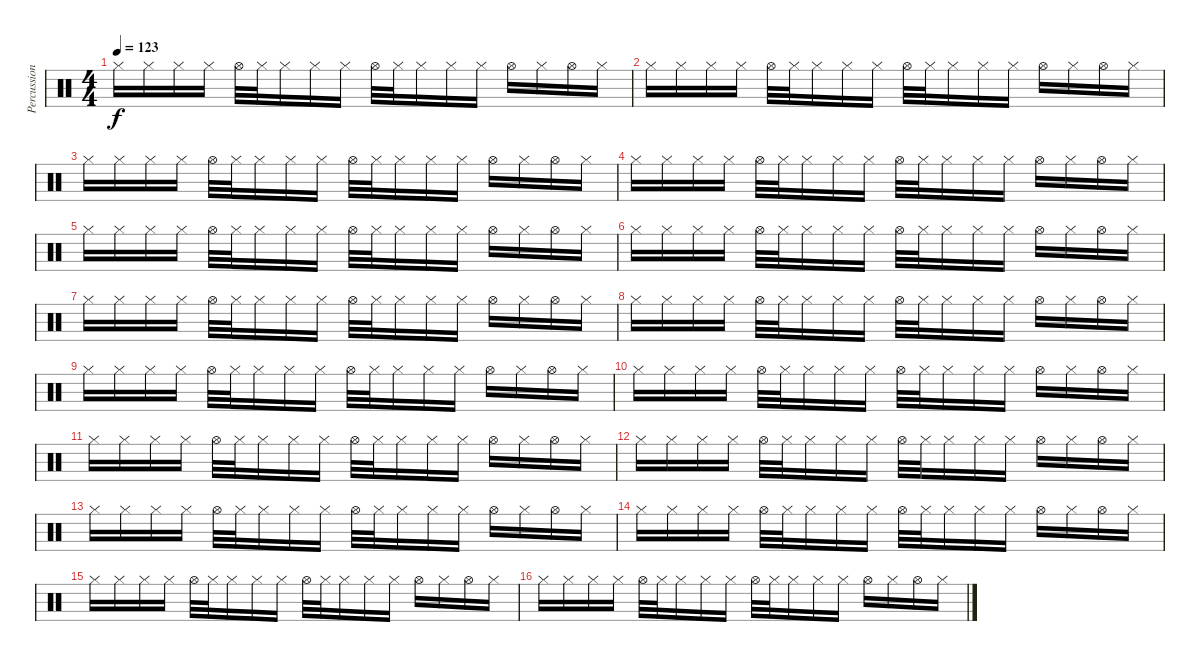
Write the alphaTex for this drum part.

\track ("Percussion" "Percussion") {instrument percussion}
\staff {score}
\articulation defaults
\ts (4 4)
\tempo 123
\clef neutral
\ks c "Hi-Hat (closed)".16{dy f} "Hi-Hat (closed)".16 "Hi-Hat (closed)".16 "Hi-Hat (closed)".16 "Hi-Hat (open)".32 "Hi-Hat (closed)".32 "Hi-Hat (closed)".16 "Hi-Hat (closed)".16 "Hi-Hat (closed)".16 "Hi-Hat (open)".32 "Hi-Hat (closed)".32 "Hi-Hat (closed)".16 "Hi-Hat (closed)".16 "Hi-Hat (closed)".16 "Hi-Hat (open)".16 "Hi-Hat (closed)".16 "Hi-Hat (open)".16 "Hi-Hat (closed)".16
|
"Hi-Hat (closed)".16 "Hi-Hat (closed)".16 "Hi-Hat (closed)".16 "Hi-Hat (closed)".16 "Hi-Hat (open)".32 "Hi-Hat (closed)".32 "Hi-Hat (closed)".16 "Hi-Hat (closed)".16 "Hi-Hat (closed)".16 "Hi-Hat (open)".32 "Hi-Hat (closed)".32 "Hi-Hat (closed)".16 "Hi-Hat (closed)".16 "Hi-Hat (closed)".16 "Hi-Hat (open)".16 "Hi-Hat (closed)".16 "Hi-Hat (open)".16 "Hi-Hat (closed)".16 |
"Hi-Hat (closed)".16 "Hi-Hat (closed)".16 "Hi-Hat (closed)".16 "Hi-Hat (closed)".16 "Hi-Hat (open)".32 "Hi-Hat (closed)".32 "Hi-Hat (closed)".16 "Hi-Hat (closed)".16 "Hi-Hat (closed)".16 "Hi-Hat (open)".32 "Hi-Hat (closed)".32 "Hi-Hat (closed)".16 "Hi-Hat (closed)".16 "Hi-Hat (closed)".16 "Hi-Hat (open)".16 "Hi-Hat (closed)".16 "Hi-Hat (open)".16 "Hi-Hat (closed)".16 |
"Hi-Hat (closed)".16 "Hi-Hat (closed)".16 "Hi-Hat (closed)".16 "Hi-Hat (closed)".16 "Hi-Hat (open)".32 "Hi-Hat (closed)".32 "Hi-Hat (closed)".16 "Hi-Hat (closed)".16 "Hi-Hat (closed)".16 "Hi-Hat (open)".32 "Hi-Hat (closed)".32 "Hi-Hat (closed)".16 "Hi-Hat (closed)".16 "Hi-Hat (closed)".16 "Hi-Hat (open)".16 "Hi-Hat (closed)".16 "Hi-Hat (open)".16 "Hi-Hat (closed)".16 |
"Hi-Hat (closed)".16 "Hi-Hat (closed)".16 "Hi-Hat (closed)".16 "Hi-Hat (closed)".16 "Hi-Hat (open)".32 "Hi-Hat (closed)".32 "Hi-Hat (closed)".16 "Hi-Hat (closed)".16 "Hi-Hat (closed)".16 "Hi-Hat (open)".32 "Hi-Hat (closed)".32 "Hi-Hat (closed)".16 "Hi-Hat (closed)".16 "Hi-Hat (closed)".16 "Hi-Hat (open)".16 "Hi-Hat (closed)".16 "Hi-Hat (open)".16 "Hi-Hat (closed)".16 |
"Hi-Hat (closed)".16 "Hi-Hat (closed)".16 "Hi-Hat (closed)".16 "Hi-Hat (closed)".16 "Hi-Hat (open)".32 "Hi-Hat (closed)".32 "Hi-Hat (closed)".16 "Hi-Hat (closed)".16 "Hi-Hat (closed)".16 "Hi-Hat (open)".32 "Hi-Hat (closed)".32 "Hi-Hat (closed)".16 "Hi-Hat (closed)".16 "Hi-Hat (closed)".16 "Hi-Hat (open)".16 "Hi-Hat (closed)".16 "Hi-Hat (open)".16 "Hi-Hat (closed)".16 |
"Hi-Hat (closed)".16 "Hi-Hat (closed)".16 "Hi-Hat (closed)".16 "Hi-Hat (closed)".16 "Hi-Hat (open)".32 "Hi-Hat (closed)".32 "Hi-Hat (closed)".16 "Hi-Hat (closed)".16 "Hi-Hat (closed)".16 "Hi-Hat (open)".32 "Hi-Hat (closed)".32 "Hi-Hat (closed)".16 "Hi-Hat (closed)".16 "Hi-Hat (closed)".16 "Hi-Hat (open)".16 "Hi-Hat (closed)".16 "Hi-Hat (open)".16 "Hi-Hat (closed)".16 |
"Hi-Hat (closed)".16 "Hi-Hat (closed)".16 "Hi-Hat (closed)".16 "Hi-Hat (closed)".16 "Hi-Hat (open)".32 "Hi-Hat (closed)".32 "Hi-Hat (closed)".16 "Hi-Hat (closed)".16 "Hi-Hat (closed)".16 "Hi-Hat (open)".32 "Hi-Hat (closed)".32 "Hi-Hat (closed)".16 "Hi-Hat (closed)".16 "Hi-Hat (closed)".16 "Hi-Hat (open)".16 "Hi-Hat (closed)".16 "Hi-Hat (open)".16 "Hi-Hat (closed)".16 |
"Hi-Hat (closed)".16 "Hi-Hat (closed)".16 "Hi-Hat (closed)".16 "Hi-Hat (closed)".16 "Hi-Hat (open)".32 "Hi-Hat (closed)".32 "Hi-Hat (closed)".16 "Hi-Hat (closed)".16 "Hi-Hat (closed)".16 "Hi-Hat (open)".32 "Hi-Hat (closed)".32 "Hi-Hat (closed)".16 "Hi-Hat (closed)".16 "Hi-Hat (closed)".16 "Hi-Hat (open)".16 "Hi-Hat (closed)".16 "Hi-Hat (open)".16 "Hi-Hat (closed)".16 |
"Hi-Hat (closed)".16 "Hi-Hat (closed)".16 "Hi-Hat (closed)".16 "Hi-Hat (closed)".16 "Hi-Hat (open)".32 "Hi-Hat (closed)".32 "Hi-Hat (closed)".16 "Hi-Hat (closed)".16 "Hi-Hat (closed)".16 "Hi-Hat (open)".32 "Hi-Hat (closed)".32 "Hi-Hat (closed)".16 "Hi-Hat (closed)".16 "Hi-Hat (closed)".16 "Hi-Hat (open)".16 "Hi-Hat (closed)".16 "Hi-Hat (open)".16 "Hi-Hat (closed)".16 |
"Hi-Hat (closed)".16 "Hi-Hat (closed)".16 "Hi-Hat (closed)".16 "Hi-Hat (closed)".16 "Hi-Hat (open)".32 "Hi-Hat (closed)".32 "Hi-Hat (closed)".16 "Hi-Hat (closed)".16 "Hi-Hat (closed)".16 "Hi-Hat (open)".32 "Hi-Hat (closed)".32 "Hi-Hat (closed)".16 "Hi-Hat (closed)".16 "Hi-Hat (closed)".16 "Hi-Hat (open)".16 "Hi-Hat (closed)".16 "Hi-Hat (open)".16 "Hi-Hat (closed)".16 |
"Hi-Hat (closed)".16 "Hi-Hat (closed)".16 "Hi-Hat (closed)".16 "Hi-Hat (closed)".16 "Hi-Hat (open)".32 "Hi-Hat (closed)".32 "Hi-Hat (closed)".16 "Hi-Hat (closed)".16 "Hi-Hat (closed)".16 "Hi-Hat (open)".32 "Hi-Hat (closed)".32 "Hi-Hat (closed)".16 "Hi-Hat (closed)".16 "Hi-Hat (closed)".16 "Hi-Hat (open)".16 "Hi-Hat (closed)".16 "Hi-Hat (open)".16 "Hi-Hat (closed)".16 |
"Hi-Hat (closed)".16 "Hi-Hat (closed)".16 "Hi-Hat (closed)".16 "Hi-Hat (closed)".16 "Hi-Hat (open)".32 "Hi-Hat (closed)".32 "Hi-Hat (closed)".16 "Hi-Hat (closed)".16 "Hi-Hat (closed)".16 "Hi-Hat (open)".32 "Hi-Hat (closed)".32 "Hi-Hat (closed)".16 "Hi-Hat (closed)".16 "Hi-Hat (closed)".16 "Hi-Hat (open)".16 "Hi-Hat (closed)".16 "Hi-Hat (open)".16 "Hi-Hat (closed)".16 |
"Hi-Hat (closed)".16 "Hi-Hat (closed)".16 "Hi-Hat (closed)".16 "Hi-Hat (closed)".16 "Hi-Hat (open)".32 "Hi-Hat (closed)".32 "Hi-Hat (closed)".16 "Hi-Hat (closed)".16 "Hi-Hat (closed)".16 "Hi-Hat (open)".32 "Hi-Hat (closed)".32 "Hi-Hat (closed)".16 "Hi-Hat (closed)".16 "Hi-Hat (closed)".16 "Hi-Hat (open)".16 "Hi-Hat (closed)".16 "Hi-Hat (open)".16 "Hi-Hat (closed)".16 |
"Hi-Hat (closed)".16 "Hi-Hat (closed)".16 "Hi-Hat (closed)".16 "Hi-Hat (closed)".16 "Hi-Hat (open)".32 "Hi-Hat (closed)".32 "Hi-Hat (closed)".16 "Hi-Hat (closed)".16 "Hi-Hat (closed)".16 "Hi-Hat (open)".32 "Hi-Hat (closed)".32 "Hi-Hat (closed)".16 "Hi-Hat (closed)".16 "Hi-Hat (closed)".16 "Hi-Hat (open)".16 "Hi-Hat (closed)".16 "Hi-Hat (open)".16 "Hi-Hat (closed)".16 |
"Hi-Hat (closed)".16 "Hi-Hat (closed)".16 "Hi-Hat (closed)".16 "Hi-Hat (closed)".16 "Hi-Hat (open)".32 "Hi-Hat (closed)".32 "Hi-Hat (closed)".16 "Hi-Hat (closed)".16 "Hi-Hat (closed)".16 "Hi-Hat (open)".32 "Hi-Hat (closed)".32 "Hi-Hat (closed)".16 "Hi-Hat (closed)".16 "Hi-Hat (closed)".16 "Hi-Hat (open)".16 "Hi-Hat (closed)".16 "Hi-Hat (open)".16 "Hi-Hat (closed)".16
